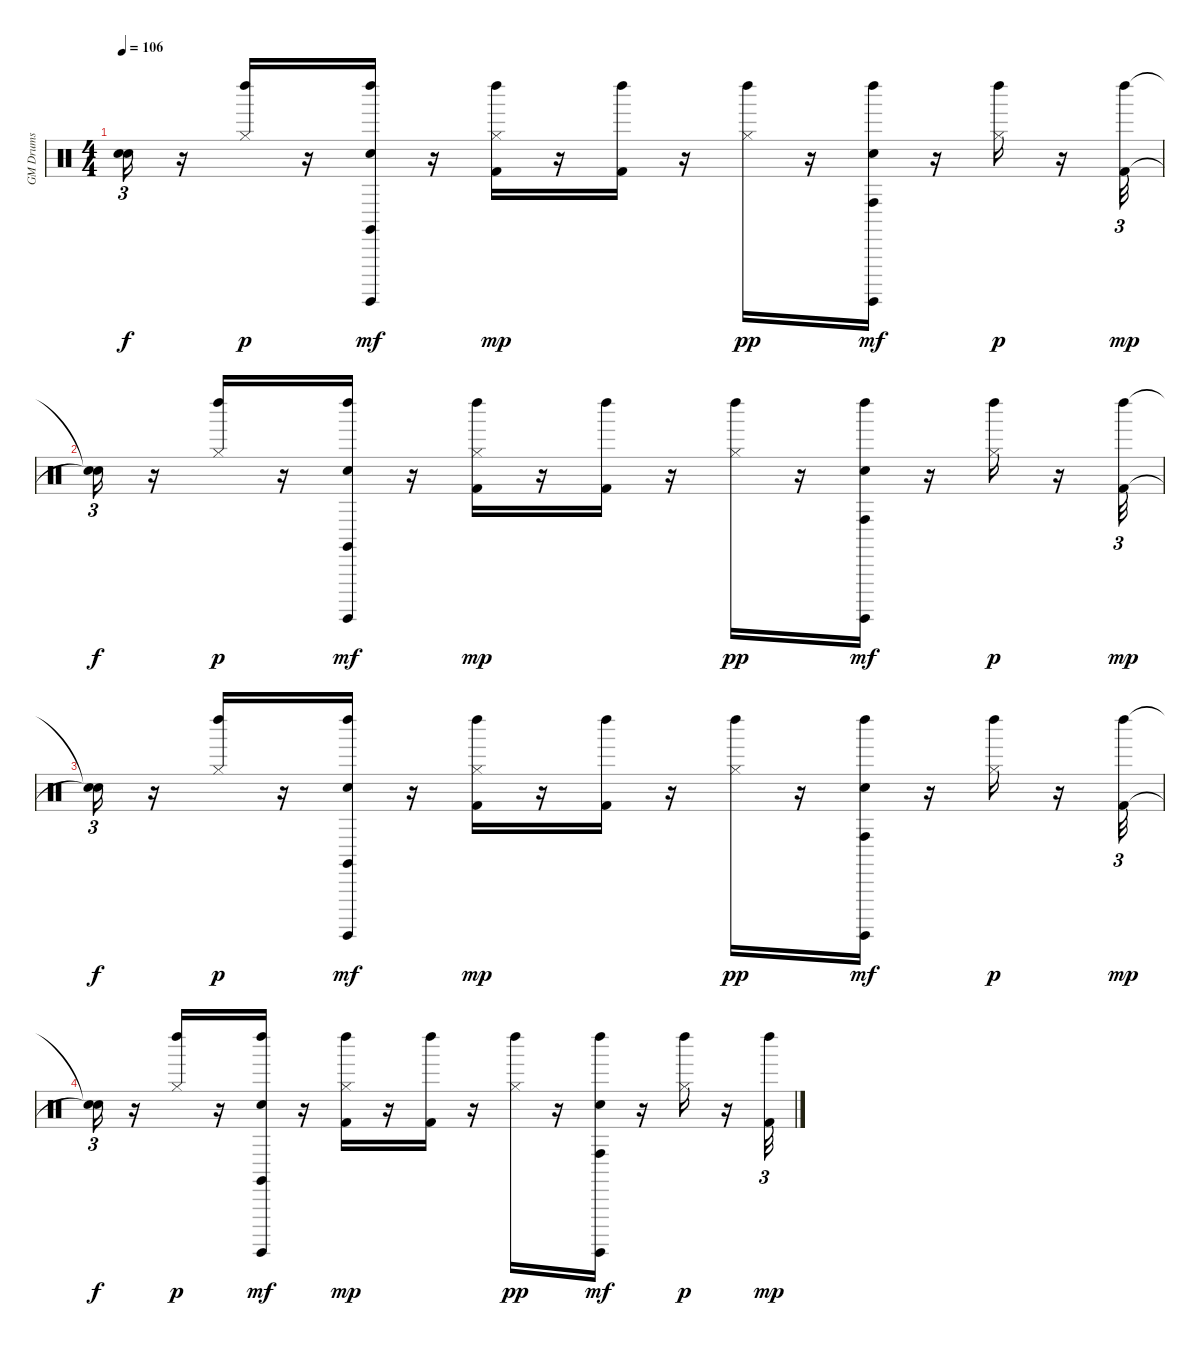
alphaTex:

\track ("GM Drums" "GM Drums") {instrument percussion}
\staff {score}
\articulation defaults
\ts (4 4)
\tempo 106
\clef neutral
\ks c
("Snare (hit)"{t} "Snare (hit)"{t}).16{tu (3 2) dy f} r.16 ("Hi-Hat (closed)" "Left Maraca (hit)").16{dy p} r.16 ("Hand Clap (hit)" "Left Maraca (hit)" "Claves (hit)" "Surdo (hit)").16{dy mf} r.16 ("Kick (hit) 2" "Hi-Hat (closed)" "Left Maraca (hit)").16{dy mp} r.16 ("Kick (hit) 2" "Left Maraca (hit)").16 r.16 ("Hi-Hat (closed)" "Left Maraca (hit)").16{dy pp} r.16 ("Hand Clap (hit)" "Conga high (hit)" "Left Maraca (hit)" "Surdo (hit)").16{dy mf} r.16 ("Hi-Hat (closed)" "Left Maraca (hit)").16{dy p} r.16 ("Kick (hit) 2" "Left Maraca (hit)").32{tu (3 2) dy mp} |
("Snare (hit)"{t} "Snare (hit)"{t}).16{tu (3 2) dy f} r.16 ("Hi-Hat (closed)" "Left Maraca (hit)").16{dy p} r.16 ("Hand Clap (hit)" "Left Maraca (hit)" "Claves (hit)" "Surdo (hit)").16{dy mf} r.16 ("Kick (hit) 2" "Hi-Hat (closed)" "Left Maraca (hit)").16{dy mp} r.16 ("Kick (hit) 2" "Left Maraca (hit)").16 r.16 ("Hi-Hat (closed)" "Left Maraca (hit)").16{dy pp} r.16 ("Hand Clap (hit)" "Conga high (hit)" "Left Maraca (hit)" "Surdo (hit)").16{dy mf} r.16 ("Hi-Hat (closed)" "Left Maraca (hit)").16{dy p} r.16 ("Kick (hit) 2" "Left Maraca (hit)").32{tu (3 2) dy mp} |
("Snare (hit)"{t} "Snare (hit)"{t}).16{tu (3 2) dy f} r.16 ("Hi-Hat (closed)" "Left Maraca (hit)").16{dy p} r.16 ("Hand Clap (hit)" "Left Maraca (hit)" "Claves (hit)" "Surdo (hit)").16{dy mf} r.16 ("Kick (hit) 2" "Hi-Hat (closed)" "Left Maraca (hit)").16{dy mp} r.16 ("Kick (hit) 2" "Left Maraca (hit)").16 r.16 ("Hi-Hat (closed)" "Left Maraca (hit)").16{dy pp} r.16 ("Hand Clap (hit)" "Conga high (hit)" "Left Maraca (hit)" "Surdo (hit)").16{dy mf} r.16 ("Hi-Hat (closed)" "Left Maraca (hit)").16{dy p} r.16 ("Kick (hit) 2" "Left Maraca (hit)").32{tu (3 2) dy mp} |
("Snare (hit)"{t} "Snare (hit)"{t}).16{tu (3 2) dy f} r.16 ("Hi-Hat (closed)" "Left Maraca (hit)").16{dy p} r.16 ("Hand Clap (hit)" "Left Maraca (hit)" "Claves (hit)" "Surdo (hit)").16{dy mf} r.16 ("Kick (hit) 2" "Hi-Hat (closed)" "Left Maraca (hit)").16{dy mp} r.16 ("Kick (hit) 2" "Left Maraca (hit)").16 r.16 ("Hi-Hat (closed)" "Left Maraca (hit)").16{dy pp} r.16 ("Hand Clap (hit)" "Conga high (hit)" "Left Maraca (hit)" "Surdo (hit)").16{dy mf} r.16 ("Hi-Hat (closed)" "Left Maraca (hit)").16{dy p} r.16 ("Kick (hit) 2" "Left Maraca (hit)").32{tu (3 2) dy mp}
